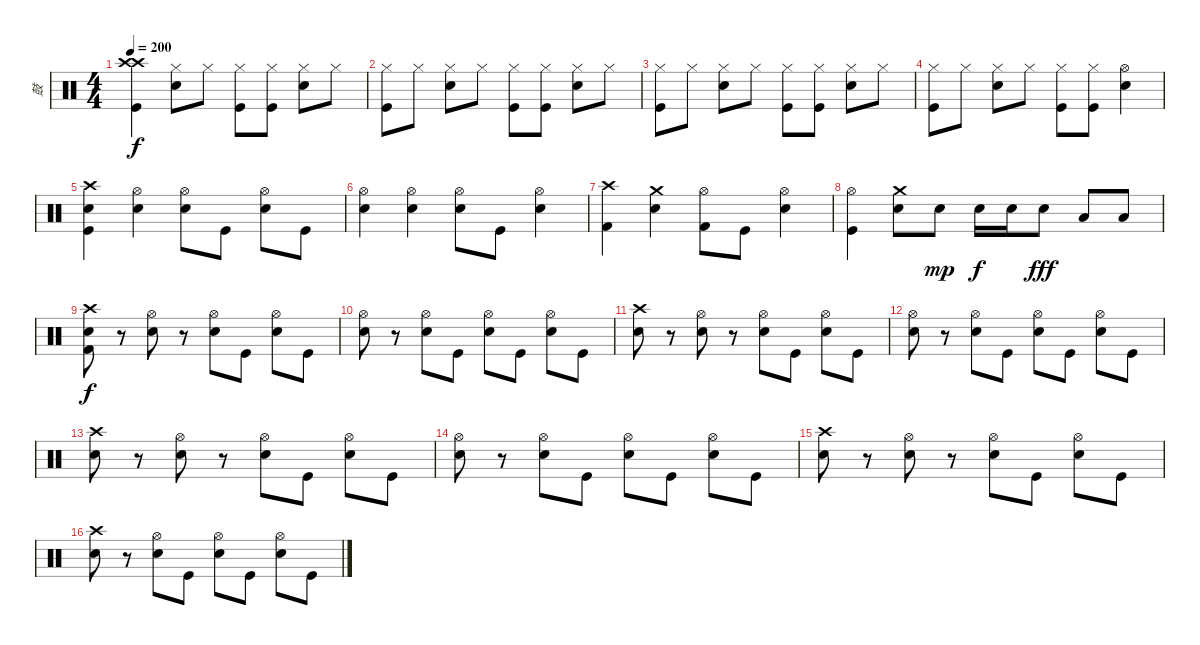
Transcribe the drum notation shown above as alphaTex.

\track ("鼓" "鼓") {instrument percussion}
\staff {score}
\articulation defaults
\ts (4 4)
\tempo 200
\clef neutral
\ks c
("Crash high (hit)" "Crash high (hit)" "Kick (hit)").4{dy f} ("Hi-Hat (closed)" "Snare (hit) 2").8 "Hi-Hat (closed)".8 ("Hi-Hat (closed)" "Kick (hit)").8 ("Hi-Hat (closed)" "Kick (hit)").8 ("Hi-Hat (closed)" "Snare (hit) 2").8 "Hi-Hat (closed)".8 |
("Hi-Hat (closed)" "Kick (hit)").8 "Hi-Hat (closed)".8 ("Hi-Hat (closed)" "Snare (hit) 2").8 "Hi-Hat (closed)".8 ("Hi-Hat (closed)" "Kick (hit)").8 ("Hi-Hat (closed)" "Kick (hit)").8 ("Hi-Hat (closed)" "Snare (hit) 2").8 "Hi-Hat (closed)".8 |
("Hi-Hat (closed)" "Kick (hit)").8 "Hi-Hat (closed)".8 ("Hi-Hat (closed)" "Snare (hit) 2").8 "Hi-Hat (closed)".8 ("Hi-Hat (closed)" "Kick (hit)").8 ("Hi-Hat (closed)" "Kick (hit)").8 ("Hi-Hat (closed)" "Snare (hit) 2").8 "Hi-Hat (closed)".8 |
("Hi-Hat (closed)" "Kick (hit)").8 "Hi-Hat (closed)".8 ("Hi-Hat (closed)" "Snare (hit) 2").8 "Hi-Hat (closed)".8 ("Hi-Hat (closed)" "Kick (hit)").8 ("Hi-Hat (closed)" "Kick (hit)").8 ("Hi-Hat (open)" "Snare (hit) 2").4 |
("Crash high (hit)" "Snare (hit) 2" "Kick (hit)").4 ("Hi-Hat (open)" "Snare (hit) 2").4 ("Hi-Hat (open)" "Snare (hit) 2").8 "Kick (hit)".8 ("Hi-Hat (open)" "Snare (hit) 2").8 "Kick (hit)".8 |
("Hi-Hat (open)" "Snare (hit) 2").4 ("Hi-Hat (open)" "Snare (hit) 2").4 ("Hi-Hat (open)" "Snare (hit) 2").8 "Kick (hit)".8 ("Hi-Hat (open)" "Snare (hit) 2").4 |
("Crash high (hit)" "Kick (hit) 2").4 ("Crash medium (hit)" "Snare (hit) 2").4 ("Hi-Hat (open)" "Kick (hit) 2").8 "Kick (hit)".8 ("Hi-Hat (open)" "Snare (hit) 2").4 |
("Hi-Hat (open)" "Kick (hit)").4 ("Crash medium (hit)" "Snare (hit) 2").8 "Snare (hit) 2".8{dy mp} "Snare (hit) 2".16{dy f} "Snare (hit) 2".16 "Snare (hit) 2".8{dy fff} "Low Floor Tom (hit)".8 "Low Floor Tom (hit)".8 |
("Crash high (hit)" "Snare (hit) 2" "Kick (hit) 2").8{dy f} r.8 ("Hi-Hat (open)" "Snare (hit) 2").8 r.8 ("Hi-Hat (open)" "Snare (hit) 2").8 "Kick (hit)".8 ("Hi-Hat (open)" "Snare (hit) 2").8 "Kick (hit)".8 |
("Hi-Hat (open)" "Snare (hit) 2").8 r.8 ("Hi-Hat (open)" "Snare (hit) 2").8 "Kick (hit)".8 ("Hi-Hat (open)" "Snare (hit) 2").8 "Kick (hit)".8 ("Hi-Hat (open)" "Snare (hit) 2").8 "Kick (hit)".8 |
("Crash high (hit)" "Snare (hit) 2").8 r.8 ("Hi-Hat (open)" "Snare (hit) 2").8 r.8 ("Hi-Hat (open)" "Snare (hit) 2").8 "Kick (hit)".8 ("Hi-Hat (open)" "Snare (hit) 2").8 "Kick (hit)".8 |
("Hi-Hat (open)" "Snare (hit) 2").8 r.8 ("Hi-Hat (open)" "Snare (hit) 2").8 "Kick (hit)".8 ("Hi-Hat (open)" "Snare (hit) 2").8 "Kick (hit)".8 ("Hi-Hat (open)" "Snare (hit) 2").8 "Kick (hit)".8 |
("Crash high (hit)" "Snare (hit) 2").8 r.8 ("Hi-Hat (open)" "Snare (hit) 2").8 r.8 ("Hi-Hat (open)" "Snare (hit) 2").8 "Kick (hit)".8 ("Hi-Hat (open)" "Snare (hit) 2").8 "Kick (hit)".8 |
("Hi-Hat (open)" "Snare (hit) 2").8 r.8 ("Hi-Hat (open)" "Snare (hit) 2").8 "Kick (hit)".8 ("Hi-Hat (open)" "Snare (hit) 2").8 "Kick (hit)".8 ("Hi-Hat (open)" "Snare (hit) 2").8 "Kick (hit)".8 |
("Crash high (hit)" "Snare (hit) 2").8 r.8 ("Hi-Hat (open)" "Snare (hit) 2").8 r.8 ("Hi-Hat (open)" "Snare (hit) 2").8 "Kick (hit)".8 ("Hi-Hat (open)" "Snare (hit) 2").8 "Kick (hit)".8 |
("Crash high (hit)" "Snare (hit) 2").8 r.8 ("Hi-Hat (open)" "Snare (hit) 2").8 "Kick (hit)".8 ("Hi-Hat (open)" "Snare (hit) 2").8 "Kick (hit)".8 ("Hi-Hat (open)" "Snare (hit) 2").8 "Kick (hit)".8
